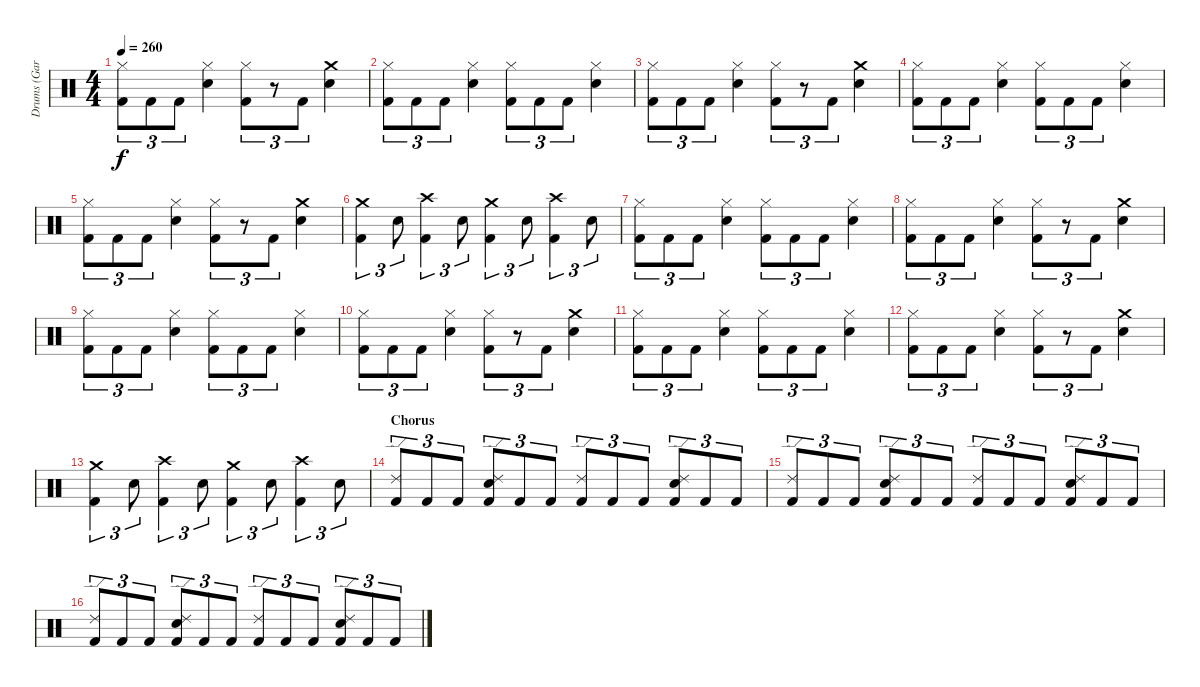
\track ("Drums (Gar Samuelson)" "Drums (Gar") {instrument percussion}
\staff {score}
\articulation defaults
\ts (4 4)
\tempo 260
\clef neutral
\ks c
("Hi-Hat (closed)" "Kick (hit) 2").8{tu (3 2) dy f} "Kick (hit) 2".8{tu (3 2)} "Kick (hit) 2".8{tu (3 2)} ("Hi-Hat (closed)" "Snare (hit) 2").4 ("Hi-Hat (closed)" "Kick (hit) 2").8{tu (3 2)} r.8{tu (3 2)} "Kick (hit) 2".8{tu (3 2)} ("Crash medium (hit)" "Snare (hit) 2").4 |
("Hi-Hat (closed)" "Kick (hit) 2").8{tu (3 2)} "Kick (hit) 2".8{tu (3 2)} "Kick (hit) 2".8{tu (3 2)} ("Hi-Hat (closed)" "Snare (hit) 2").4 ("Hi-Hat (closed)" "Kick (hit) 2").8{tu (3 2)} "Kick (hit) 2".8{tu (3 2)} "Kick (hit) 2".8{tu (3 2)} ("Hi-Hat (closed)" "Snare (hit) 2").4 |
("Hi-Hat (closed)" "Kick (hit) 2").8{tu (3 2)} "Kick (hit) 2".8{tu (3 2)} "Kick (hit) 2".8{tu (3 2)} ("Hi-Hat (closed)" "Snare (hit) 2").4 ("Hi-Hat (closed)" "Kick (hit) 2").8{tu (3 2)} r.8{tu (3 2)} "Kick (hit) 2".8{tu (3 2)} ("Crash medium (hit)" "Snare (hit) 2").4 |
("Hi-Hat (closed)" "Kick (hit) 2").8{tu (3 2)} "Kick (hit) 2".8{tu (3 2)} "Kick (hit) 2".8{tu (3 2)} ("Hi-Hat (closed)" "Snare (hit) 2").4 ("Hi-Hat (closed)" "Kick (hit) 2").8{tu (3 2)} "Kick (hit) 2".8{tu (3 2)} "Kick (hit) 2".8{tu (3 2)} ("Hi-Hat (closed)" "Snare (hit) 2").4 |
("Hi-Hat (closed)" "Kick (hit) 2").8{tu (3 2)} "Kick (hit) 2".8{tu (3 2)} "Kick (hit) 2".8{tu (3 2)} ("Hi-Hat (closed)" "Snare (hit) 2").4 ("Hi-Hat (closed)" "Kick (hit) 2").8{tu (3 2)} r.8{tu (3 2)} "Kick (hit) 2".8{tu (3 2)} ("Crash medium (hit)" "Snare (hit) 2").4 |
("Crash medium (hit)" "Kick (hit) 2").4{tu (3 2)} "Snare (hit) 2".8{tu (3 2)} ("Crash high (hit)" "Kick (hit) 2").4{tu (3 2)} "Snare (hit) 2".8{tu (3 2)} ("Crash medium (hit)" "Kick (hit) 2").4{tu (3 2)} "Snare (hit) 2".8{tu (3 2)} ("Crash high (hit)" "Kick (hit) 2").4{tu (3 2)} "Snare (hit) 2".8{tu (3 2)} |
("Hi-Hat (closed)" "Kick (hit) 2").8{tu (3 2)} "Kick (hit) 2".8{tu (3 2)} "Kick (hit) 2".8{tu (3 2)} ("Hi-Hat (closed)" "Snare (hit) 2").4 ("Hi-Hat (closed)" "Kick (hit) 2").8{tu (3 2)} "Kick (hit) 2".8{tu (3 2)} "Kick (hit) 2".8{tu (3 2)} ("Hi-Hat (closed)" "Snare (hit) 2").4 |
("Hi-Hat (closed)" "Kick (hit) 2").8{tu (3 2)} "Kick (hit) 2".8{tu (3 2)} "Kick (hit) 2".8{tu (3 2)} ("Hi-Hat (closed)" "Snare (hit) 2").4 ("Hi-Hat (closed)" "Kick (hit) 2").8{tu (3 2)} r.8{tu (3 2)} "Kick (hit) 2".8{tu (3 2)} ("Crash medium (hit)" "Snare (hit) 2").4 |
("Hi-Hat (closed)" "Kick (hit) 2").8{tu (3 2)} "Kick (hit) 2".8{tu (3 2)} "Kick (hit) 2".8{tu (3 2)} ("Hi-Hat (closed)" "Snare (hit) 2").4 ("Hi-Hat (closed)" "Kick (hit) 2").8{tu (3 2)} "Kick (hit) 2".8{tu (3 2)} "Kick (hit) 2".8{tu (3 2)} ("Hi-Hat (closed)" "Snare (hit) 2").4 |
("Hi-Hat (closed)" "Kick (hit) 2").8{tu (3 2)} "Kick (hit) 2".8{tu (3 2)} "Kick (hit) 2".8{tu (3 2)} ("Hi-Hat (closed)" "Snare (hit) 2").4 ("Hi-Hat (closed)" "Kick (hit) 2").8{tu (3 2)} r.8{tu (3 2)} "Kick (hit) 2".8{tu (3 2)} ("Crash medium (hit)" "Snare (hit) 2").4 |
("Hi-Hat (closed)" "Kick (hit) 2").8{tu (3 2)} "Kick (hit) 2".8{tu (3 2)} "Kick (hit) 2".8{tu (3 2)} ("Hi-Hat (closed)" "Snare (hit) 2").4 ("Hi-Hat (closed)" "Kick (hit) 2").8{tu (3 2)} "Kick (hit) 2".8{tu (3 2)} "Kick (hit) 2".8{tu (3 2)} ("Hi-Hat (closed)" "Snare (hit) 2").4 |
("Hi-Hat (closed)" "Kick (hit) 2").8{tu (3 2)} "Kick (hit) 2".8{tu (3 2)} "Kick (hit) 2".8{tu (3 2)} ("Hi-Hat (closed)" "Snare (hit) 2").4 ("Hi-Hat (closed)" "Kick (hit) 2").8{tu (3 2)} r.8{tu (3 2)} "Kick (hit) 2".8{tu (3 2)} ("Crash medium (hit)" "Snare (hit) 2").4 |
("Crash medium (hit)" "Kick (hit) 2").4{tu (3 2)} "Snare (hit) 2".8{tu (3 2)} ("Crash high (hit)" "Kick (hit) 2").4{tu (3 2)} "Snare (hit) 2".8{tu (3 2)} ("Crash medium (hit)" "Kick (hit) 2").4{tu (3 2)} "Snare (hit) 2".8{tu (3 2)} ("Crash high (hit)" "Kick (hit) 2").4{tu (3 2)} "Snare (hit) 2".8{tu (3 2)} |
\section ("" "Chorus")
("Ride (edge) 2" "Kick (hit) 2").8{tu (3 2)} "Kick (hit) 2".8{tu (3 2)} "Kick (hit) 2".8{tu (3 2)} ("Ride (edge) 2" "Snare (hit) 2" "Kick (hit) 2").8{tu (3 2)} "Kick (hit) 2".8{tu (3 2)} "Kick (hit) 2".8{tu (3 2)} ("Ride (edge) 2" "Kick (hit) 2").8{tu (3 2)} "Kick (hit) 2".8{tu (3 2)} "Kick (hit) 2".8{tu (3 2)} ("Ride (edge) 2" "Snare (hit) 2" "Kick (hit) 2").8{tu (3 2)} "Kick (hit) 2".8{tu (3 2)} "Kick (hit) 2".8{tu (3 2)} |
("Ride (edge) 2" "Kick (hit) 2").8{tu (3 2)} "Kick (hit) 2".8{tu (3 2)} "Kick (hit) 2".8{tu (3 2)} ("Ride (edge) 2" "Snare (hit) 2" "Kick (hit) 2").8{tu (3 2)} "Kick (hit) 2".8{tu (3 2)} "Kick (hit) 2".8{tu (3 2)} ("Ride (edge) 2" "Kick (hit) 2").8{tu (3 2)} "Kick (hit) 2".8{tu (3 2)} "Kick (hit) 2".8{tu (3 2)} ("Ride (edge) 2" "Snare (hit) 2" "Kick (hit) 2").8{tu (3 2)} "Kick (hit) 2".8{tu (3 2)} "Kick (hit) 2".8{tu (3 2)} |
("Ride (edge) 2" "Kick (hit) 2").8{tu (3 2)} "Kick (hit) 2".8{tu (3 2)} "Kick (hit) 2".8{tu (3 2)} ("Ride (edge) 2" "Snare (hit) 2" "Kick (hit) 2").8{tu (3 2)} "Kick (hit) 2".8{tu (3 2)} "Kick (hit) 2".8{tu (3 2)} ("Ride (edge) 2" "Kick (hit) 2").8{tu (3 2)} "Kick (hit) 2".8{tu (3 2)} "Kick (hit) 2".8{tu (3 2)} ("Ride (edge) 2" "Snare (hit) 2" "Kick (hit) 2").8{tu (3 2)} "Kick (hit) 2".8{tu (3 2)} "Kick (hit) 2".8{tu (3 2)}
